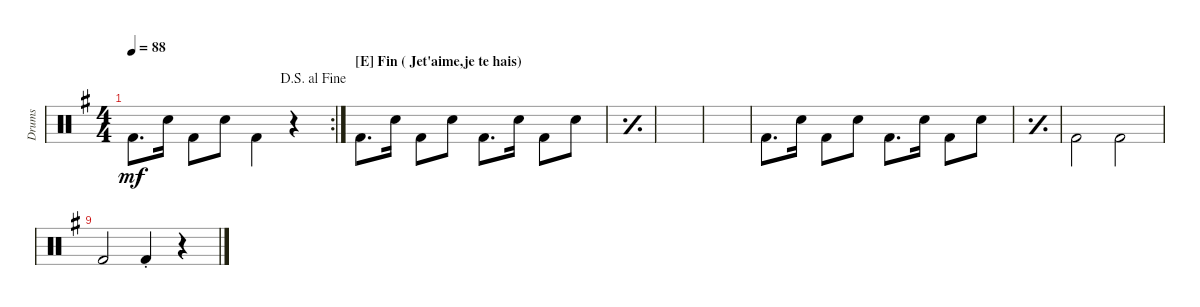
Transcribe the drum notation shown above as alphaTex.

\defaultSystemsLayout 4
\bracketExtendMode groupsimilarinstruments
\firstSystemTrackNameMode fullname
\otherSystemsTrackNameMode fullname
\defaultBarNumberDisplay FirstOfSystem
\track ("Drums" "drm.") {defaultSystemsLayout 6 instrument percussion}
\staff {score}
\articulation defaults
\rc 2
\ts (4 4)
\jump dalsegnoalfine
\tempo 88
\clef neutral
\ks g "Kick (hit) 2"{acc forcenatural}.8{d dy mf beam Down} "Snare (hit) 2"{acc forcenatural}.16{beam Down} "Kick (hit) 2"{acc forcenatural}.8{beam Down} "Snare (hit) 2"{acc forcenatural}.8{beam Down} "Kick (hit) 2"{acc forcenatural}.4{beam Down}
r.4{beam Down} |
\section ("E" "Fin ( Jet'aime,je te hais)")
"Kick (hit) 2"{acc forcenatural}.8{d beam Down} "Snare (hit) 2"{acc forcenatural}.16{beam Down} "Kick (hit) 2"{acc forcenatural}.8{beam Down} "Snare (hit) 2"{acc forcenatural}.8{beam Down} "Kick (hit) 2"{acc forcenatural}.8{d beam Down} "Snare (hit) 2"{acc forcenatural}.16{beam Down} "Kick (hit) 2"{acc forcenatural}.8{beam Down} "Snare (hit) 2"{acc forcenatural}.8{beam Down} |
\simile simple
|
|
|
\simile none "Kick (hit) 2"{acc forcenatural}.8{d beam Down} "Snare (hit) 2"{acc forcenatural}.16{beam Down} "Kick (hit) 2"{acc forcenatural}.8{beam Down} "Snare (hit) 2"{acc forcenatural}.8{beam Down} "Kick (hit) 2"{acc forcenatural}.8{d beam Down} "Snare (hit) 2"{acc forcenatural}.16{beam Down} "Kick (hit) 2"{acc forcenatural}.8{beam Down} "Snare (hit) 2"{acc forcenatural}.8{beam Down}
|
\simile simple
|
\simile none "Kick (hit) 2"{acc forcenatural}.2{beam Down} "Kick (hit) 2"{acc forcenatural}.2{beam Down}
|
"Kick (hit) 2"{acc forcenatural}.2 "Kick (hit) 2"{st acc forcenatural}.4 r.4
